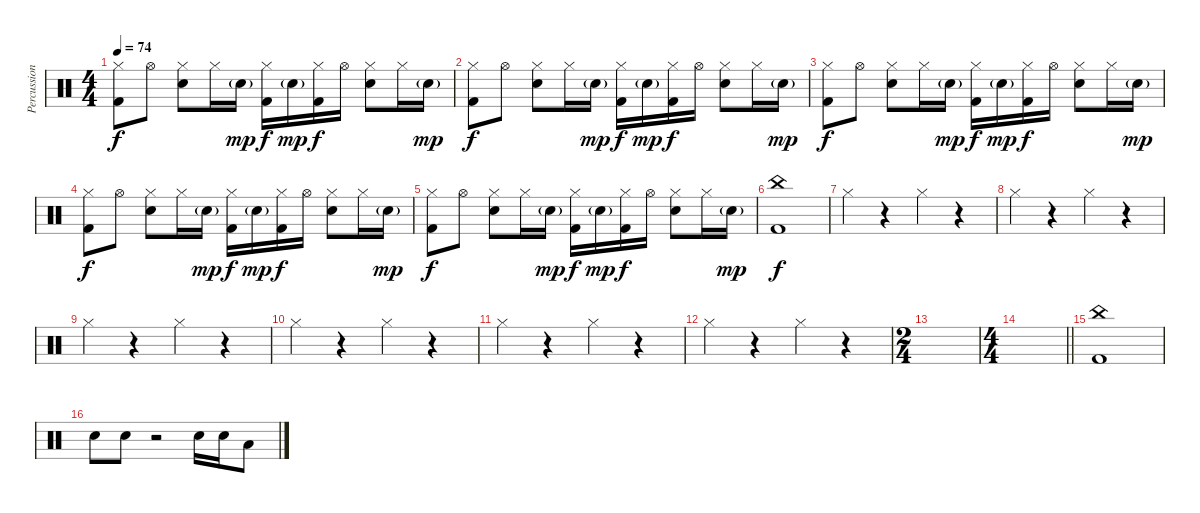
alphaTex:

\track ("Percussion" "Percussion") {instrument percussion}
\staff {score}
\articulation defaults
\ts (4 4)
\tempo 74
\clef neutral
\ks c
("Kick (hit) 2" "Hi-Hat (closed)").8{dy f} "Hi-Hat (open)".8 ("Hi-Hat (closed)" "Snare (hit) 2").8 "Hi-Hat (closed)".16 "Snare (hit) 2"{g}.16{dy mp} ("Kick (hit) 2" "Hi-Hat (closed)").16{dy f} "Snare (hit) 2"{g}.16{dy mp} ("Kick (hit) 2" "Hi-Hat (closed)").16{dy f} "Hi-Hat (open)".16 ("Hi-Hat (closed)" "Snare (hit) 2").8 "Hi-Hat (closed)".16 "Snare (hit) 2"{g}.16{dy mp} |
("Kick (hit) 2" "Hi-Hat (closed)").8{dy f} "Hi-Hat (open)".8 ("Hi-Hat (closed)" "Snare (hit) 2").8 "Hi-Hat (closed)".16 "Snare (hit) 2"{g}.16{dy mp} ("Kick (hit) 2" "Hi-Hat (closed)").16{dy f} "Snare (hit) 2"{g}.16{dy mp} ("Kick (hit) 2" "Hi-Hat (closed)").16{dy f} "Hi-Hat (open)".16 ("Hi-Hat (closed)" "Snare (hit) 2").8 "Hi-Hat (closed)".16 "Snare (hit) 2"{g}.16{dy mp} |
("Kick (hit) 2" "Hi-Hat (closed)").8{dy f} "Hi-Hat (open)".8 ("Hi-Hat (closed)" "Snare (hit) 2").8 "Hi-Hat (closed)".16 "Snare (hit) 2"{g}.16{dy mp} ("Kick (hit) 2" "Hi-Hat (closed)").16{dy f} "Snare (hit) 2"{g}.16{dy mp} ("Kick (hit) 2" "Hi-Hat (closed)").16{dy f} "Hi-Hat (open)".16 ("Hi-Hat (closed)" "Snare (hit) 2").8 "Hi-Hat (closed)".16 "Snare (hit) 2"{g}.16{dy mp} |
("Kick (hit) 2" "Hi-Hat (closed)").8{dy f} "Hi-Hat (open)".8 ("Hi-Hat (closed)" "Snare (hit) 2").8 "Hi-Hat (closed)".16 "Snare (hit) 2"{g}.16{dy mp} ("Kick (hit) 2" "Hi-Hat (closed)").16{dy f} "Snare (hit) 2"{g}.16{dy mp} ("Kick (hit) 2" "Hi-Hat (closed)").16{dy f} "Hi-Hat (open)".16 ("Hi-Hat (closed)" "Snare (hit) 2").8 "Hi-Hat (closed)".16 "Snare (hit) 2"{g}.16{dy mp} |
("Kick (hit) 2" "Hi-Hat (closed)").8{dy f} "Hi-Hat (open)".8 ("Hi-Hat (closed)" "Snare (hit) 2").8 "Hi-Hat (closed)".16 "Snare (hit) 2"{g}.16{dy mp} ("Kick (hit) 2" "Hi-Hat (closed)").16{dy f} "Snare (hit) 2"{g}.16{dy mp} ("Kick (hit) 2" "Hi-Hat (closed)").16{dy f} "Hi-Hat (open)".16 ("Hi-Hat (closed)" "Snare (hit) 2").8 "Hi-Hat (closed)".16 "Snare (hit) 2"{g}.16{dy mp} |
("China (hit)" "Kick (hit) 2").1{dy f} |
"Hi-Hat (closed)".4 r.4 "Hi-Hat (closed)".4 r.4 |
"Hi-Hat (closed)".4 r.4 "Hi-Hat (closed)".4 r.4 |
"Hi-Hat (closed)".4 r.4 "Hi-Hat (closed)".4 r.4 |
"Hi-Hat (closed)".4 r.4 "Hi-Hat (closed)".4 r.4 |
"Hi-Hat (closed)".4 r.4 "Hi-Hat (closed)".4 r.4 |
"Hi-Hat (closed)".4 r.4 "Hi-Hat (closed)".4 r.4 |
\ts (2 4)
|
\ts (4 4)
\barLineRight lightlight
|
("China (hit)" "Kick (hit) 2").1 |
"Snare (hit) 2".8 "Snare (hit) 2".8 r.2 "Snare (hit) 2".16 "Snare (hit) 2".16 "Low Tom (hit)".8
